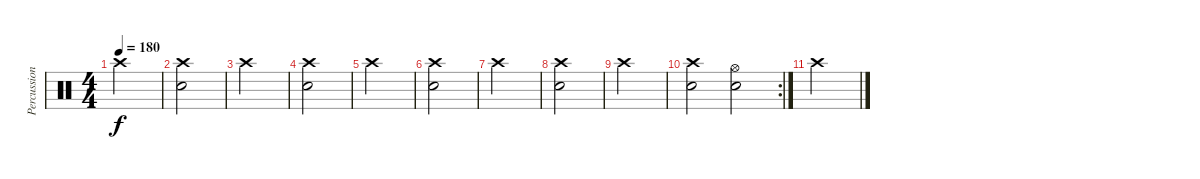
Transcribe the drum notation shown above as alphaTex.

\track ("Percussion" "Percussion") {instrument percussion}
\staff {score}
\articulation defaults
\ts (4 4)
\tempo 180
\clef neutral
\ks c "Crash high (hit)".2{dy f}
|
("Crash high (hit)" "Snare (hit) 2").2 |
"Crash high (hit)".2 |
("Crash high (hit)" "Snare (hit) 2").2 |
"Crash high (hit)".2 |
("Crash high (hit)" "Snare (hit) 2").2 |
"Crash high (hit)".2 |
("Crash high (hit)" "Snare (hit) 2").2 |
"Crash high (hit)".2 |
\rc 2
("Crash high (hit)" "Snare (hit) 2").2 ("Hi-Hat (open)" "Snare (hit) 2").2 |
"Crash high (hit)".2
